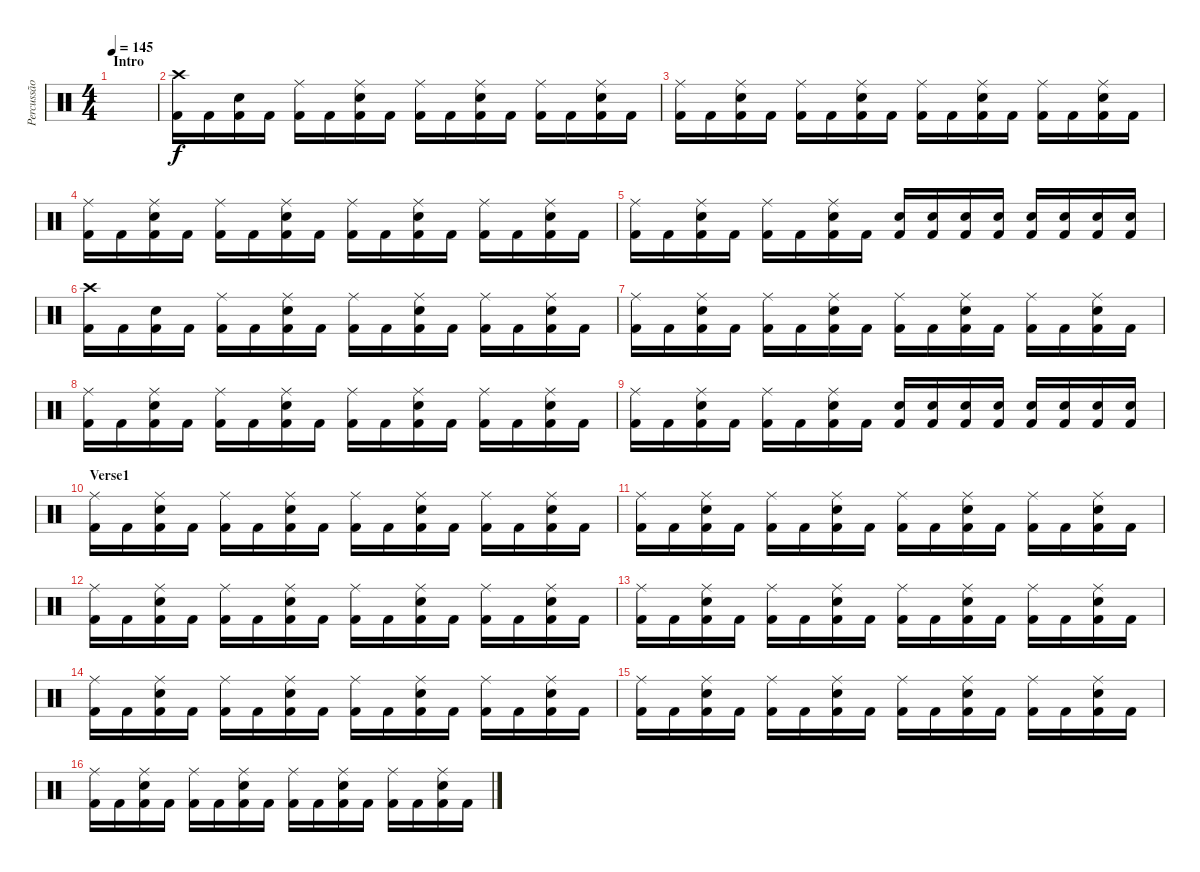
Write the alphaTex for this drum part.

\track ("Percussão" "Percussão") {instrument percussion}
\staff {score}
\articulation defaults
\ts (4 4)
\section ("" "Intro")
\tempo 145
\clef neutral
\ks c
|
("Kick (hit) 2" "Crash high (hit)").16 "Kick (hit) 2".16 ("Kick (hit) 2" "Snare (hit) 2").16 "Kick (hit) 2".16 ("Kick (hit) 2" "Ride (middle)").16 "Kick (hit) 2".16 ("Kick (hit) 2" "Snare (hit) 2" "Ride (middle)").16 "Kick (hit) 2".16 ("Kick (hit) 2" "Ride (middle)").16 "Kick (hit) 2".16 ("Kick (hit) 2" "Snare (hit) 2" "Ride (middle)").16 "Kick (hit) 2".16 ("Kick (hit) 2" "Ride (middle)").16 "Kick (hit) 2".16 ("Kick (hit) 2" "Snare (hit) 2" "Ride (middle)").16 "Kick (hit) 2".16 |
("Kick (hit) 2" "Ride (middle)").16 "Kick (hit) 2".16 ("Kick (hit) 2" "Snare (hit) 2" "Ride (middle)").16 "Kick (hit) 2".16 ("Kick (hit) 2" "Ride (middle)").16 "Kick (hit) 2".16 ("Kick (hit) 2" "Snare (hit) 2" "Ride (middle)").16 "Kick (hit) 2".16 ("Kick (hit) 2" "Ride (middle)").16 "Kick (hit) 2".16 ("Kick (hit) 2" "Snare (hit) 2" "Ride (middle)").16 "Kick (hit) 2".16 ("Kick (hit) 2" "Ride (middle)").16 "Kick (hit) 2".16 ("Kick (hit) 2" "Snare (hit) 2" "Ride (middle)").16 "Kick (hit) 2".16 |
("Kick (hit) 2" "Ride (middle)").16 "Kick (hit) 2".16 ("Kick (hit) 2" "Snare (hit) 2" "Ride (middle)").16 "Kick (hit) 2".16 ("Kick (hit) 2" "Ride (middle)").16 "Kick (hit) 2".16 ("Kick (hit) 2" "Snare (hit) 2" "Ride (middle)").16 "Kick (hit) 2".16 ("Kick (hit) 2" "Ride (middle)").16 "Kick (hit) 2".16 ("Kick (hit) 2" "Snare (hit) 2" "Ride (middle)").16 "Kick (hit) 2".16 ("Kick (hit) 2" "Ride (middle)").16 "Kick (hit) 2".16 ("Kick (hit) 2" "Snare (hit) 2" "Ride (middle)").16 "Kick (hit) 2".16 |
("Kick (hit) 2" "Ride (middle)").16 "Kick (hit) 2".16 ("Kick (hit) 2" "Snare (hit) 2" "Ride (middle)").16 "Kick (hit) 2".16 ("Kick (hit) 2" "Ride (middle)").16 "Kick (hit) 2".16 ("Kick (hit) 2" "Snare (hit) 2" "Ride (middle)").16 "Kick (hit) 2".16 ("Kick (hit) 2" "Snare (hit) 2").16 ("Kick (hit) 2" "Snare (hit) 2").16 ("Kick (hit) 2" "Snare (hit) 2").16 ("Kick (hit) 2" "Snare (hit) 2").16 ("Kick (hit) 2" "Snare (hit) 2").16 ("Kick (hit) 2" "Snare (hit) 2").16 ("Kick (hit) 2" "Snare (hit) 2").16 ("Kick (hit) 2" "Snare (hit) 2").16 |
("Kick (hit) 2" "Crash high (hit)").16 "Kick (hit) 2".16 ("Kick (hit) 2" "Snare (hit) 2").16 "Kick (hit) 2".16 ("Kick (hit) 2" "Ride (middle)").16 "Kick (hit) 2".16 ("Kick (hit) 2" "Snare (hit) 2" "Ride (middle)").16 "Kick (hit) 2".16 ("Kick (hit) 2" "Ride (middle)").16 "Kick (hit) 2".16 ("Kick (hit) 2" "Snare (hit) 2" "Ride (middle)").16 "Kick (hit) 2".16 ("Kick (hit) 2" "Ride (middle)").16 "Kick (hit) 2".16 ("Kick (hit) 2" "Snare (hit) 2" "Ride (middle)").16 "Kick (hit) 2".16 |
("Kick (hit) 2" "Ride (middle)").16 "Kick (hit) 2".16 ("Kick (hit) 2" "Snare (hit) 2" "Ride (middle)").16 "Kick (hit) 2".16 ("Kick (hit) 2" "Ride (middle)").16 "Kick (hit) 2".16 ("Kick (hit) 2" "Snare (hit) 2" "Ride (middle)").16 "Kick (hit) 2".16 ("Kick (hit) 2" "Ride (middle)").16 "Kick (hit) 2".16 ("Kick (hit) 2" "Snare (hit) 2" "Ride (middle)").16 "Kick (hit) 2".16 ("Kick (hit) 2" "Ride (middle)").16 "Kick (hit) 2".16 ("Kick (hit) 2" "Snare (hit) 2" "Ride (middle)").16 "Kick (hit) 2".16 |
("Kick (hit) 2" "Ride (middle)").16 "Kick (hit) 2".16 ("Kick (hit) 2" "Snare (hit) 2" "Ride (middle)").16 "Kick (hit) 2".16 ("Kick (hit) 2" "Ride (middle)").16 "Kick (hit) 2".16 ("Kick (hit) 2" "Snare (hit) 2" "Ride (middle)").16 "Kick (hit) 2".16 ("Kick (hit) 2" "Ride (middle)").16 "Kick (hit) 2".16 ("Kick (hit) 2" "Snare (hit) 2" "Ride (middle)").16 "Kick (hit) 2".16 ("Kick (hit) 2" "Ride (middle)").16 "Kick (hit) 2".16 ("Kick (hit) 2" "Snare (hit) 2" "Ride (middle)").16 "Kick (hit) 2".16 |
("Kick (hit) 2" "Ride (middle)").16 "Kick (hit) 2".16 ("Kick (hit) 2" "Snare (hit) 2" "Ride (middle)").16 "Kick (hit) 2".16 ("Kick (hit) 2" "Ride (middle)").16 "Kick (hit) 2".16 ("Kick (hit) 2" "Snare (hit) 2" "Ride (middle)").16 "Kick (hit) 2".16 ("Kick (hit) 2" "Snare (hit) 2").16 ("Kick (hit) 2" "Snare (hit) 2").16 ("Kick (hit) 2" "Snare (hit) 2").16 ("Kick (hit) 2" "Snare (hit) 2").16 ("Kick (hit) 2" "Snare (hit) 2").16 ("Kick (hit) 2" "Snare (hit) 2").16 ("Kick (hit) 2" "Snare (hit) 2").16 ("Kick (hit) 2" "Snare (hit) 2").16 |
\section ("" "Verse1")
("Kick (hit) 2" "Ride (middle)").16 "Kick (hit) 2".16 ("Kick (hit) 2" "Snare (hit) 2" "Ride (middle)").16 "Kick (hit) 2".16 ("Kick (hit) 2" "Ride (middle)").16 "Kick (hit) 2".16 ("Kick (hit) 2" "Snare (hit) 2" "Ride (middle)").16 "Kick (hit) 2".16 ("Kick (hit) 2" "Ride (middle)").16 "Kick (hit) 2".16 ("Kick (hit) 2" "Snare (hit) 2" "Ride (middle)").16 "Kick (hit) 2".16 ("Kick (hit) 2" "Ride (middle)").16 "Kick (hit) 2".16 ("Kick (hit) 2" "Snare (hit) 2" "Ride (middle)").16 "Kick (hit) 2".16 |
("Kick (hit) 2" "Ride (middle)").16 "Kick (hit) 2".16 ("Kick (hit) 2" "Snare (hit) 2" "Ride (middle)").16 "Kick (hit) 2".16 ("Kick (hit) 2" "Ride (middle)").16 "Kick (hit) 2".16 ("Kick (hit) 2" "Snare (hit) 2" "Ride (middle)").16 "Kick (hit) 2".16 ("Kick (hit) 2" "Ride (middle)").16 "Kick (hit) 2".16 ("Kick (hit) 2" "Snare (hit) 2" "Ride (middle)").16 "Kick (hit) 2".16 ("Kick (hit) 2" "Ride (middle)").16 "Kick (hit) 2".16 ("Kick (hit) 2" "Snare (hit) 2" "Ride (middle)").16 "Kick (hit) 2".16 |
("Kick (hit) 2" "Ride (middle)").16 "Kick (hit) 2".16 ("Kick (hit) 2" "Snare (hit) 2" "Ride (middle)").16 "Kick (hit) 2".16 ("Kick (hit) 2" "Ride (middle)").16 "Kick (hit) 2".16 ("Kick (hit) 2" "Snare (hit) 2" "Ride (middle)").16 "Kick (hit) 2".16 ("Kick (hit) 2" "Ride (middle)").16 "Kick (hit) 2".16 ("Kick (hit) 2" "Snare (hit) 2" "Ride (middle)").16 "Kick (hit) 2".16 ("Kick (hit) 2" "Ride (middle)").16 "Kick (hit) 2".16 ("Kick (hit) 2" "Snare (hit) 2" "Ride (middle)").16 "Kick (hit) 2".16 |
("Kick (hit) 2" "Ride (middle)").16 "Kick (hit) 2".16 ("Kick (hit) 2" "Snare (hit) 2" "Ride (middle)").16 "Kick (hit) 2".16 ("Kick (hit) 2" "Ride (middle)").16 "Kick (hit) 2".16 ("Kick (hit) 2" "Snare (hit) 2" "Ride (middle)").16 "Kick (hit) 2".16 ("Kick (hit) 2" "Ride (middle)").16 "Kick (hit) 2".16 ("Kick (hit) 2" "Snare (hit) 2" "Ride (middle)").16 "Kick (hit) 2".16 ("Kick (hit) 2" "Ride (middle)").16 "Kick (hit) 2".16 ("Kick (hit) 2" "Snare (hit) 2" "Ride (middle)").16 "Kick (hit) 2".16 |
("Kick (hit) 2" "Ride (middle)").16 "Kick (hit) 2".16 ("Kick (hit) 2" "Snare (hit) 2" "Ride (middle)").16 "Kick (hit) 2".16 ("Kick (hit) 2" "Ride (middle)").16 "Kick (hit) 2".16 ("Kick (hit) 2" "Snare (hit) 2" "Ride (middle)").16 "Kick (hit) 2".16 ("Kick (hit) 2" "Ride (middle)").16 "Kick (hit) 2".16 ("Kick (hit) 2" "Snare (hit) 2" "Ride (middle)").16 "Kick (hit) 2".16 ("Kick (hit) 2" "Ride (middle)").16 "Kick (hit) 2".16 ("Kick (hit) 2" "Snare (hit) 2" "Ride (middle)").16 "Kick (hit) 2".16 |
("Kick (hit) 2" "Ride (middle)").16 "Kick (hit) 2".16 ("Kick (hit) 2" "Snare (hit) 2" "Ride (middle)").16 "Kick (hit) 2".16 ("Kick (hit) 2" "Ride (middle)").16 "Kick (hit) 2".16 ("Kick (hit) 2" "Snare (hit) 2" "Ride (middle)").16 "Kick (hit) 2".16 ("Kick (hit) 2" "Ride (middle)").16 "Kick (hit) 2".16 ("Kick (hit) 2" "Snare (hit) 2" "Ride (middle)").16 "Kick (hit) 2".16 ("Kick (hit) 2" "Ride (middle)").16 "Kick (hit) 2".16 ("Kick (hit) 2" "Snare (hit) 2" "Ride (middle)").16 "Kick (hit) 2".16 |
("Kick (hit) 2" "Ride (middle)").16 "Kick (hit) 2".16 ("Kick (hit) 2" "Snare (hit) 2" "Ride (middle)").16 "Kick (hit) 2".16 ("Kick (hit) 2" "Ride (middle)").16 "Kick (hit) 2".16 ("Kick (hit) 2" "Snare (hit) 2" "Ride (middle)").16 "Kick (hit) 2".16 ("Kick (hit) 2" "Ride (middle)").16 "Kick (hit) 2".16 ("Kick (hit) 2" "Snare (hit) 2" "Ride (middle)").16 "Kick (hit) 2".16 ("Kick (hit) 2" "Ride (middle)").16 "Kick (hit) 2".16 ("Kick (hit) 2" "Snare (hit) 2" "Ride (middle)").16 "Kick (hit) 2".16
